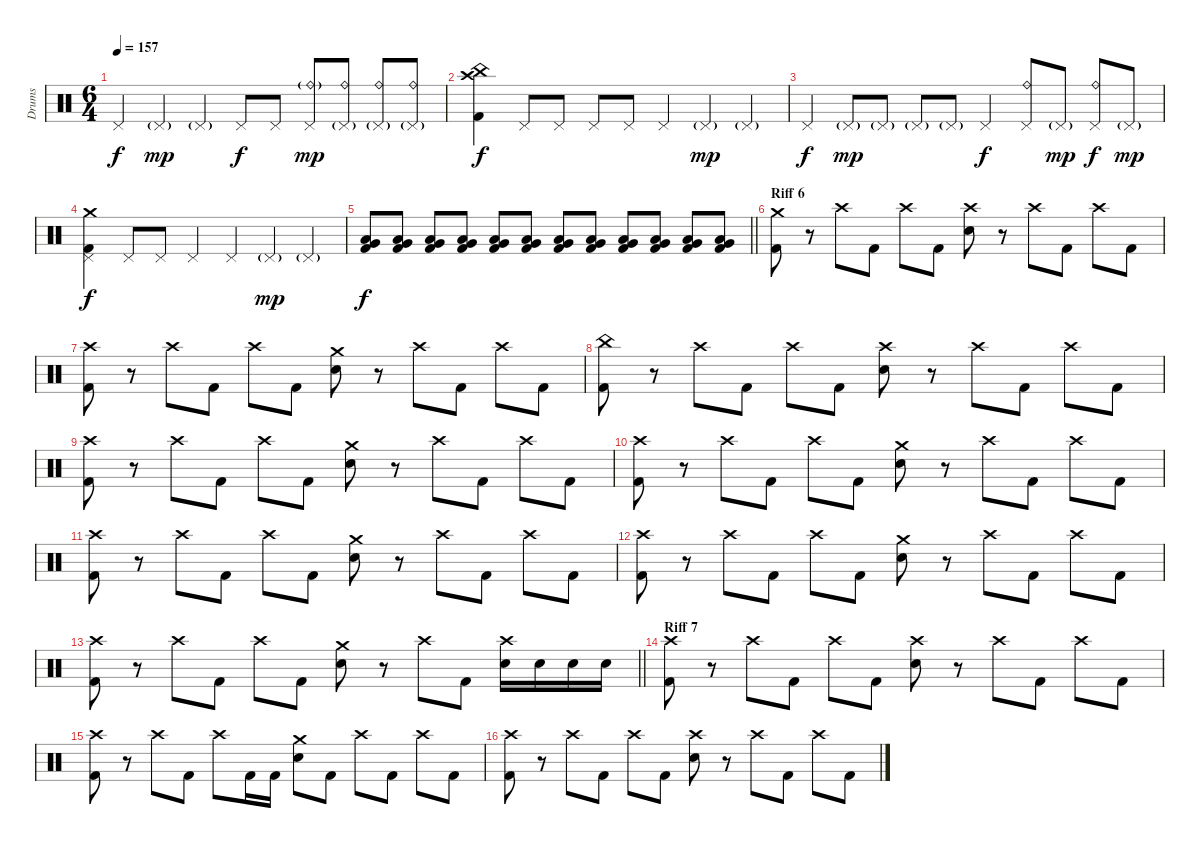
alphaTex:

\track ("Drums" "Drums") {instrument percussion}
\staff {score}
\articulation defaults
\ts (6 4)
\tempo 157
\clef neutral
\ks c "Pedal Hi-Hat (hit)".4{dy f} "Pedal Hi-Hat (hit)"{g}.4{dy mp} "Pedal Hi-Hat (hit)"{g}.4 "Pedal Hi-Hat (hit)".8{dy f} "Pedal Hi-Hat (hit)".8
("Pedal Hi-Hat (hit)" "Ride (bell)"{g}).8{dy mp} ("Pedal Hi-Hat (hit)"{g} "Ride (bell)").8 ("Pedal Hi-Hat (hit)"{g} "Ride (bell)").8 ("Pedal Hi-Hat (hit)"{g} "Ride (bell)").8 |
("China (hit)" "Crash high (hit)" "Kick (hit) 2").4{dy f} "Pedal Hi-Hat (hit)".8 "Pedal Hi-Hat (hit)".8 "Pedal Hi-Hat (hit)".8 "Pedal Hi-Hat (hit)".8 "Pedal Hi-Hat (hit)".4 "Pedal Hi-Hat (hit)"{g}.4{dy mp} "Pedal Hi-Hat (hit)"{g}.4 |
"Pedal Hi-Hat (hit)".4{dy f} "Pedal Hi-Hat (hit)"{g}.8{dy mp} "Pedal Hi-Hat (hit)"{g}.8 "Pedal Hi-Hat (hit)"{g}.8 "Pedal Hi-Hat (hit)"{g}.8 "Pedal Hi-Hat (hit)".4{dy f} ("Pedal Hi-Hat (hit)" "Ride (bell)").8 "Pedal Hi-Hat (hit)"{g}.8{dy mp} ("Pedal Hi-Hat (hit)" "Ride (bell)").8{dy f} "Pedal Hi-Hat (hit)"{g}.8{dy mp} |
("Crash medium (hit)" "Pedal Hi-Hat (hit)" "Kick (hit) 2").4{dy f} "Pedal Hi-Hat (hit)".8 "Pedal Hi-Hat (hit)".8 "Pedal Hi-Hat (hit)".4 "Pedal Hi-Hat (hit)".4 "Pedal Hi-Hat (hit)"{g}.4{dy mp} "Pedal Hi-Hat (hit)"{g}.4 |
\barLineRight lightlight
("Very Low Tom (hit)" "Low Tom (hit)" "Kick (hit) 2").8{dy f volume 3} ("Very Low Tom (hit)" "Low Tom (hit)" "Kick (hit) 2").8{volume 16} ("Very Low Tom (hit)" "Low Tom (hit)" "Kick (hit) 2").8 ("Very Low Tom (hit)" "Low Tom (hit)" "Kick (hit) 2").8 ("Very Low Tom (hit)" "Low Tom (hit)" "Kick (hit) 2").8 ("Very Low Tom (hit)" "Low Tom (hit)" "Kick (hit) 2").8 ("Very Low Tom (hit)" "Low Tom (hit)" "Kick (hit) 2").8 ("Very Low Tom (hit)" "Low Tom (hit)" "Kick (hit) 2").8 ("Very Low Tom (hit)" "Low Tom (hit)" "Kick (hit) 2").8 ("Very Low Tom (hit)" "Low Tom (hit)" "Kick (hit) 2").8 ("Very Low Tom (hit)" "Low Tom (hit)" "Kick (hit) 2").8 ("Very Low Tom (hit)" "Low Tom (hit)" "Kick (hit) 2").8 |
\section ("" "Riff 6")
("Crash medium (hit)" "Kick (hit) 2").8 r.8 "Crash high (hit)".8 "Kick (hit) 2".8 "Crash high (hit)".8 "Kick (hit) 2".8 ("Crash high (hit)" "Electric Snare (hit)").8 r.8 "Crash high (hit)".8 "Kick (hit) 2".8 "Crash high (hit)".8 "Kick (hit) 2".8 |
("Crash high (hit)" "Kick (hit) 2").8 r.8 "Crash high (hit)".8 "Kick (hit) 2".8 "Crash high (hit)".8 "Kick (hit) 2".8 ("Crash medium (hit)" "Electric Snare (hit)").8 r.8 "Crash high (hit)".8 "Kick (hit) 2".8 "Crash high (hit)".8 "Kick (hit) 2".8 |
("China (hit)" "Kick (hit) 2").8 r.8 "Crash high (hit)".8 "Kick (hit) 2".8 "Crash high (hit)".8 "Kick (hit) 2".8 ("Crash high (hit)" "Electric Snare (hit)").8 r.8 "Crash high (hit)".8 "Kick (hit) 2".8 "Crash high (hit)".8 "Kick (hit) 2".8 |
("Crash high (hit)" "Kick (hit) 2").8 r.8 "Crash high (hit)".8 "Kick (hit) 2".8 "Crash high (hit)".8 "Kick (hit) 2".8 ("Crash medium (hit)" "Electric Snare (hit)").8 r.8 "Crash high (hit)".8 "Kick (hit) 2".8 "Crash high (hit)".8 "Kick (hit) 2".8 |
("Crash high (hit)" "Kick (hit) 2").8 r.8 "Crash high (hit)".8 "Kick (hit) 2".8 "Crash high (hit)".8 "Kick (hit) 2".8 ("Crash medium (hit)" "Electric Snare (hit)").8 r.8 "Crash high (hit)".8 "Kick (hit) 2".8 "Crash high (hit)".8 "Kick (hit) 2".8 |
("Crash high (hit)" "Kick (hit) 2").8 r.8 "Crash high (hit)".8 "Kick (hit) 2".8 "Crash high (hit)".8 "Kick (hit) 2".8 ("Crash medium (hit)" "Electric Snare (hit)").8 r.8 "Crash high (hit)".8 "Kick (hit) 2".8 "Crash high (hit)".8 "Kick (hit) 2".8 |
("Crash high (hit)" "Kick (hit) 2").8 r.8 "Crash high (hit)".8 "Kick (hit) 2".8 "Crash high (hit)".8 "Kick (hit) 2".8 ("Crash medium (hit)" "Electric Snare (hit)").8 r.8 "Crash high (hit)".8 "Kick (hit) 2".8 "Crash high (hit)".8 "Kick (hit) 2".8 |
\barLineRight lightlight
("Crash high (hit)" "Kick (hit) 2").8 r.8 "Crash high (hit)".8 "Kick (hit) 2".8 "Crash high (hit)".8 "Kick (hit) 2".8 ("Crash medium (hit)" "Electric Snare (hit)").8 r.8 "Crash high (hit)".8 "Kick (hit) 2".8 ("Crash high (hit)" "Electric Snare (hit)").16 "Electric Snare (hit)".16 "Electric Snare (hit)".16 "Electric Snare (hit)".16 |
\section ("" "Riff 7")
("Crash high (hit)" "Kick (hit) 2").8 r.8 "Crash high (hit)".8 "Kick (hit) 2".8 "Crash high (hit)".8 "Kick (hit) 2".8 ("Crash high (hit)" "Electric Snare (hit)").8 r.8 "Crash high (hit)".8 "Kick (hit) 2".8 "Crash high (hit)".8 "Kick (hit) 2".8 |
("Crash high (hit)" "Kick (hit) 2").8 r.8 "Crash high (hit)".8 "Kick (hit) 2".8 "Crash high (hit)".8 "Kick (hit) 2".16 "Kick (hit) 2".16 ("Crash medium (hit)" "Electric Snare (hit)").8 "Kick (hit) 2".8 "Crash high (hit)".8 "Kick (hit) 2".8 "Crash high (hit)".8 "Kick (hit) 2".8 |
("Crash high (hit)" "Kick (hit) 2").8 r.8 "Crash high (hit)".8 "Kick (hit) 2".8 "Crash high (hit)".8 "Kick (hit) 2".8 ("Crash high (hit)" "Electric Snare (hit)").8 r.8 "Crash high (hit)".8 "Kick (hit) 2".8 "Crash high (hit)".8 "Kick (hit) 2".8
